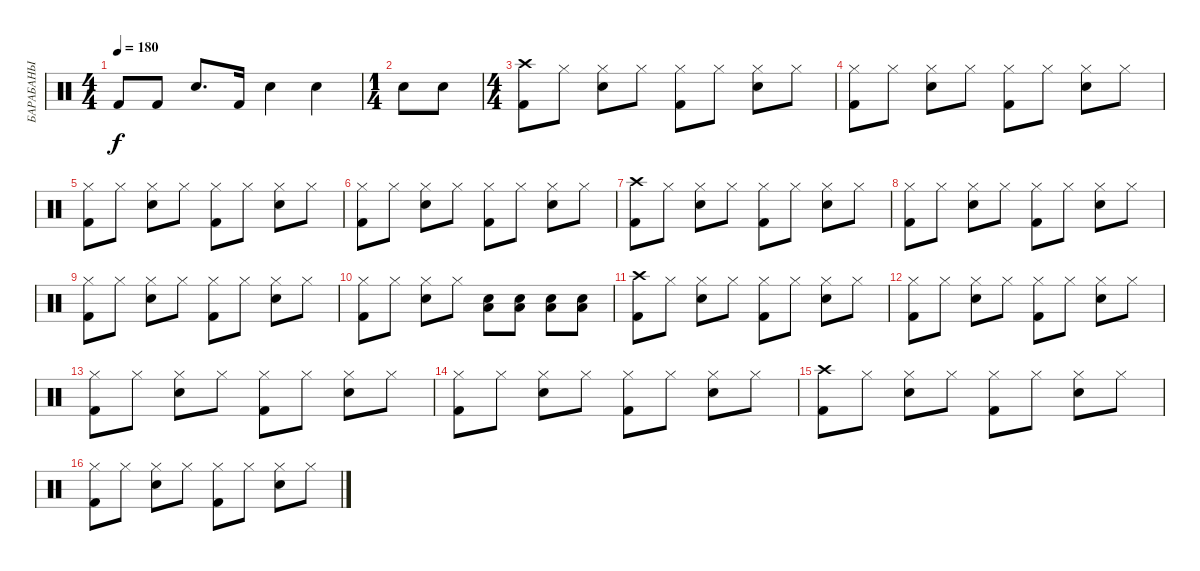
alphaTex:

\track ("БАРАБАНЫ" "БАРАБАНЫ") {instrument percussion}
\staff {score}
\articulation defaults
\ts (4 4)
\tempo 180
\clef neutral
\ks c "Kick (hit) 2".8{dy f} "Kick (hit) 2".8 "Electric Snare (hit)".8{d} "Kick (hit) 2".16 "Electric Snare (hit)".4 "Electric Snare (hit)".4
|
\ts (1 4)
"Electric Snare (hit)".8 "Electric Snare (hit)".8 |
\ts (4 4)
("Crash high (hit)" "Kick (hit) 2").8 "Hi-Hat (closed)".8 ("Hi-Hat (closed)" "Electric Snare (hit)").8 "Hi-Hat (closed)".8 ("Hi-Hat (closed)" "Kick (hit) 2").8 "Hi-Hat (closed)".8 ("Hi-Hat (closed)" "Electric Snare (hit)").8 "Hi-Hat (closed)".8 |
("Hi-Hat (closed)" "Kick (hit) 2").8 "Hi-Hat (closed)".8 ("Hi-Hat (closed)" "Electric Snare (hit)").8 "Hi-Hat (closed)".8 ("Hi-Hat (closed)" "Kick (hit) 2").8 "Hi-Hat (closed)".8 ("Hi-Hat (closed)" "Electric Snare (hit)").8 "Hi-Hat (closed)".8 |
("Hi-Hat (closed)" "Kick (hit) 2").8 "Hi-Hat (closed)".8 ("Hi-Hat (closed)" "Electric Snare (hit)").8 "Hi-Hat (closed)".8 ("Hi-Hat (closed)" "Kick (hit) 2").8 "Hi-Hat (closed)".8 ("Hi-Hat (closed)" "Electric Snare (hit)").8 "Hi-Hat (closed)".8 |
("Hi-Hat (closed)" "Kick (hit) 2").8 "Hi-Hat (closed)".8 ("Hi-Hat (closed)" "Electric Snare (hit)").8 "Hi-Hat (closed)".8 ("Hi-Hat (closed)" "Kick (hit) 2").8 "Hi-Hat (closed)".8 ("Hi-Hat (closed)" "Electric Snare (hit)").8 "Hi-Hat (closed)".8 |
("Crash high (hit)" "Kick (hit) 2").8 "Hi-Hat (closed)".8 ("Hi-Hat (closed)" "Electric Snare (hit)").8 "Hi-Hat (closed)".8 ("Hi-Hat (closed)" "Kick (hit) 2").8 "Hi-Hat (closed)".8 ("Hi-Hat (closed)" "Electric Snare (hit)").8 "Hi-Hat (closed)".8 |
("Hi-Hat (closed)" "Kick (hit) 2").8 "Hi-Hat (closed)".8 ("Hi-Hat (closed)" "Electric Snare (hit)").8 "Hi-Hat (closed)".8 ("Hi-Hat (closed)" "Kick (hit) 2").8 "Hi-Hat (closed)".8 ("Hi-Hat (closed)" "Electric Snare (hit)").8 "Hi-Hat (closed)".8 |
("Hi-Hat (closed)" "Kick (hit) 2").8 "Hi-Hat (closed)".8 ("Hi-Hat (closed)" "Electric Snare (hit)").8 "Hi-Hat (closed)".8 ("Hi-Hat (closed)" "Kick (hit) 2").8 "Hi-Hat (closed)".8 ("Hi-Hat (closed)" "Electric Snare (hit)").8 "Hi-Hat (closed)".8 |
("Hi-Hat (closed)" "Kick (hit) 2").8 "Hi-Hat (closed)".8 ("Hi-Hat (closed)" "Electric Snare (hit)").8 "Hi-Hat (closed)".8 ("Low Floor Tom (hit)" "Electric Snare (hit)").8 ("Low Floor Tom (hit)" "Electric Snare (hit)").8 ("Low Floor Tom (hit)" "Electric Snare (hit)").8 ("Low Floor Tom (hit)" "Electric Snare (hit)").8 |
("Crash high (hit)" "Kick (hit) 2").8 "Hi-Hat (closed)".8 ("Hi-Hat (closed)" "Electric Snare (hit)").8 "Hi-Hat (closed)".8 ("Hi-Hat (closed)" "Kick (hit) 2").8 "Hi-Hat (closed)".8 ("Hi-Hat (closed)" "Electric Snare (hit)").8 "Hi-Hat (closed)".8 |
("Hi-Hat (closed)" "Kick (hit) 2").8 "Hi-Hat (closed)".8 ("Hi-Hat (closed)" "Electric Snare (hit)").8 "Hi-Hat (closed)".8 ("Hi-Hat (closed)" "Kick (hit) 2").8 "Hi-Hat (closed)".8 ("Hi-Hat (closed)" "Electric Snare (hit)").8 "Hi-Hat (closed)".8 |
("Hi-Hat (closed)" "Kick (hit) 2").8 "Hi-Hat (closed)".8 ("Hi-Hat (closed)" "Electric Snare (hit)").8 "Hi-Hat (closed)".8 ("Hi-Hat (closed)" "Kick (hit) 2").8 "Hi-Hat (closed)".8 ("Hi-Hat (closed)" "Electric Snare (hit)").8 "Hi-Hat (closed)".8 |
("Hi-Hat (closed)" "Kick (hit) 2").8 "Hi-Hat (closed)".8 ("Hi-Hat (closed)" "Electric Snare (hit)").8 "Hi-Hat (closed)".8 ("Hi-Hat (closed)" "Kick (hit) 2").8 "Hi-Hat (closed)".8 ("Hi-Hat (closed)" "Electric Snare (hit)").8 "Hi-Hat (closed)".8 |
("Crash high (hit)" "Kick (hit) 2").8 "Hi-Hat (closed)".8 ("Hi-Hat (closed)" "Electric Snare (hit)").8 "Hi-Hat (closed)".8 ("Hi-Hat (closed)" "Kick (hit) 2").8 "Hi-Hat (closed)".8 ("Hi-Hat (closed)" "Electric Snare (hit)").8 "Hi-Hat (closed)".8 |
("Hi-Hat (closed)" "Kick (hit) 2").8 "Hi-Hat (closed)".8 ("Hi-Hat (closed)" "Electric Snare (hit)").8 "Hi-Hat (closed)".8 ("Hi-Hat (closed)" "Kick (hit) 2").8 "Hi-Hat (closed)".8 ("Hi-Hat (closed)" "Electric Snare (hit)").8 "Hi-Hat (closed)".8
